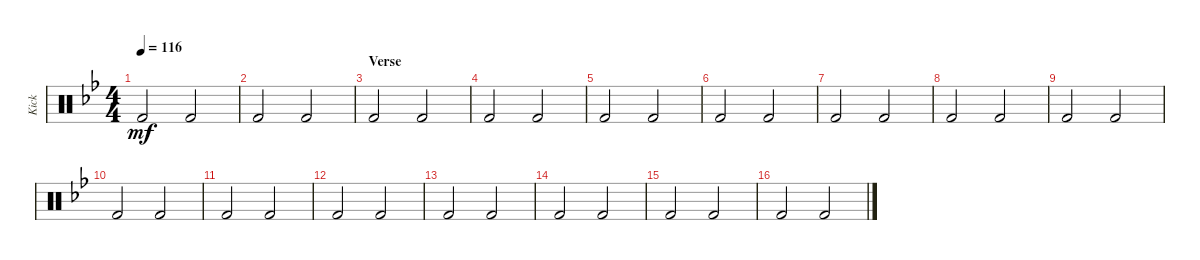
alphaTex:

\track ("Kick" "Kick") {instrument percussion}
\staff {score}
\articulation defaults
\ts (4 4)
\tempo 116
\clef neutral
\ks bb "Kick (hit) 2".2{dy mf} "Kick (hit) 2".2
|
"Kick (hit) 2".2 "Kick (hit) 2".2 |
\section ("" "Verse")
"Kick (hit) 2".2 "Kick (hit) 2".2 |
"Kick (hit) 2".2 "Kick (hit) 2".2 |
"Kick (hit) 2".2 "Kick (hit) 2".2 |
"Kick (hit) 2".2 "Kick (hit) 2".2 |
"Kick (hit) 2".2 "Kick (hit) 2".2 |
"Kick (hit) 2".2 "Kick (hit) 2".2 |
"Kick (hit) 2".2 "Kick (hit) 2".2 |
"Kick (hit) 2".2 "Kick (hit) 2".2 |
"Kick (hit) 2".2 "Kick (hit) 2".2 |
"Kick (hit) 2".2 "Kick (hit) 2".2 |
"Kick (hit) 2".2 "Kick (hit) 2".2 |
"Kick (hit) 2".2 "Kick (hit) 2".2 |
"Kick (hit) 2".2 "Kick (hit) 2".2 |
"Kick (hit) 2".2 "Kick (hit) 2".2
